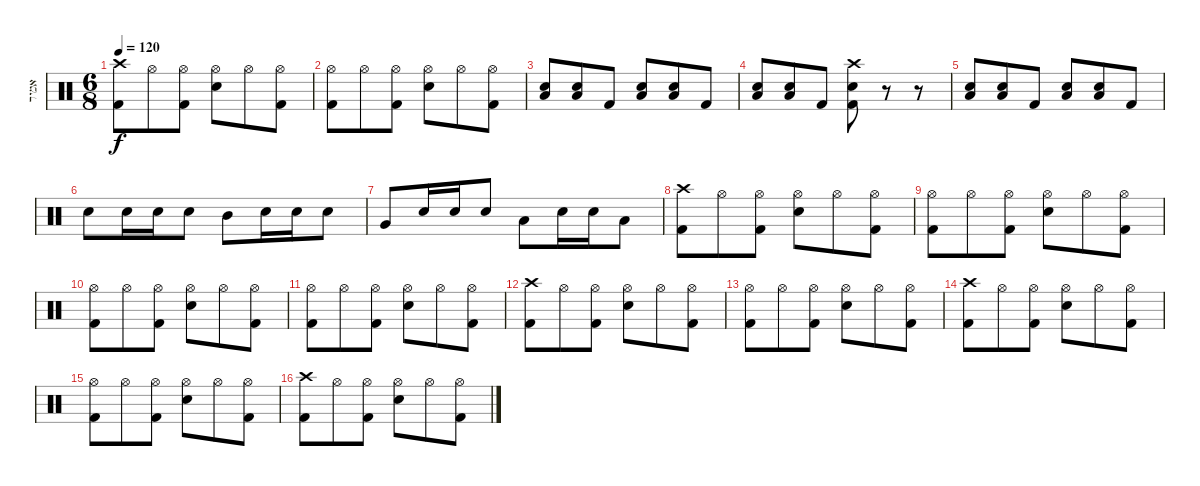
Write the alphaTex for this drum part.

\track ("אמיר" "אמיר") {instrument percussion}
\staff {score}
\articulation defaults
\ts (6 8)
\tempo 120
\clef neutral
\ks c
("Crash high (hit)" "Kick (hit) 2").8{dy f} "Hi-Hat (open)".8 ("Hi-Hat (open)" "Kick (hit) 2").8 ("Hi-Hat (open)" "Snare (hit) 2").8 "Hi-Hat (open)".8 ("Hi-Hat (open)" "Kick (hit) 2").8 |
("Hi-Hat (open)" "Kick (hit) 2").8 "Hi-Hat (open)".8 ("Hi-Hat (open)" "Kick (hit) 2").8 ("Hi-Hat (open)" "Snare (hit) 2").8 "Hi-Hat (open)".8 ("Hi-Hat (open)" "Kick (hit) 2").8 |
("Snare (hit) 2" "Low Floor Tom (hit)").8 ("Snare (hit) 2" "Low Floor Tom (hit)").8 "Kick (hit) 2".8 ("Snare (hit) 2" "Low Floor Tom (hit)").8 ("Snare (hit) 2" "Low Floor Tom (hit)").8 "Kick (hit) 2".8 |
("Snare (hit) 2" "Low Floor Tom (hit)").8 ("Snare (hit) 2" "Low Floor Tom (hit)").8 "Kick (hit) 2".8 ("Crash high (hit)" "Snare (hit) 2" "Kick (hit) 2").8 r.8 r.8 |
("Snare (hit) 2" "Low Floor Tom (hit)").8 ("Snare (hit) 2" "Low Floor Tom (hit)").8 "Kick (hit) 2".8 ("Snare (hit) 2" "Low Floor Tom (hit)").8 ("Snare (hit) 2" "Low Floor Tom (hit)").8 "Kick (hit) 2".8 |
"Snare (hit) 2".8 "Snare (hit) 2".16 "Snare (hit) 2".16 "Snare (hit) 2".8 "Mid Tom (hit)".8 "Snare (hit) 2".16 "Snare (hit) 2".16 "Snare (hit) 2".8 |
"Very Low Tom (hit)".8 "Snare (hit) 2".16 "Snare (hit) 2".16 "Snare (hit) 2".8 "Low Floor Tom (hit)".8 "Snare (hit) 2".16 "Snare (hit) 2".16 "Low Floor Tom (hit)".8 |
("Crash high (hit)" "Kick (hit) 2").8 "Hi-Hat (open)".8 ("Hi-Hat (open)" "Kick (hit) 2").8 ("Hi-Hat (open)" "Snare (hit) 2").8 "Hi-Hat (open)".8 ("Hi-Hat (open)" "Kick (hit) 2").8 |
("Hi-Hat (open)" "Kick (hit) 2").8 "Hi-Hat (open)".8 ("Hi-Hat (open)" "Kick (hit) 2").8 ("Hi-Hat (open)" "Snare (hit) 2").8 "Hi-Hat (open)".8 ("Hi-Hat (open)" "Kick (hit) 2").8 |
("Hi-Hat (open)" "Kick (hit) 2").8 "Hi-Hat (open)".8 ("Hi-Hat (open)" "Kick (hit) 2").8 ("Hi-Hat (open)" "Snare (hit) 2").8 "Hi-Hat (open)".8 ("Hi-Hat (open)" "Kick (hit) 2").8 |
("Hi-Hat (open)" "Kick (hit) 2").8 "Hi-Hat (open)".8 ("Hi-Hat (open)" "Kick (hit) 2").8 ("Hi-Hat (open)" "Snare (hit) 2").8 "Hi-Hat (open)".8 ("Hi-Hat (open)" "Kick (hit) 2").8 |
("Crash high (hit)" "Kick (hit) 2").8 "Hi-Hat (open)".8 ("Hi-Hat (open)" "Kick (hit) 2").8 ("Hi-Hat (open)" "Snare (hit) 2").8 "Hi-Hat (open)".8 ("Hi-Hat (open)" "Kick (hit) 2").8 |
("Hi-Hat (open)" "Kick (hit) 2").8 "Hi-Hat (open)".8 ("Hi-Hat (open)" "Kick (hit) 2").8 ("Hi-Hat (open)" "Snare (hit) 2").8 "Hi-Hat (open)".8 ("Hi-Hat (open)" "Kick (hit) 2").8 |
("Crash high (hit)" "Kick (hit) 2").8 "Hi-Hat (open)".8 ("Hi-Hat (open)" "Kick (hit) 2").8 ("Hi-Hat (open)" "Snare (hit) 2").8 "Hi-Hat (open)".8 ("Hi-Hat (open)" "Kick (hit) 2").8 |
("Hi-Hat (open)" "Kick (hit) 2").8 "Hi-Hat (open)".8 ("Hi-Hat (open)" "Kick (hit) 2").8 ("Hi-Hat (open)" "Snare (hit) 2").8 "Hi-Hat (open)".8 ("Hi-Hat (open)" "Kick (hit) 2").8 |
("Crash high (hit)" "Kick (hit) 2").8 "Hi-Hat (open)".8 ("Hi-Hat (open)" "Kick (hit) 2").8 ("Hi-Hat (open)" "Snare (hit) 2").8 "Hi-Hat (open)".8 ("Hi-Hat (open)" "Kick (hit) 2").8
